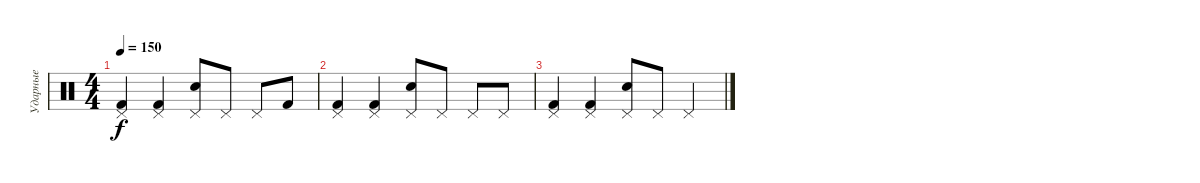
\track ("Ударные" "Ударные") {instrument percussion}
\staff {score}
\articulation defaults
\ts (4 4)
\tempo 150
\clef neutral
\ks c
("Pedal Hi-Hat (hit)" "Kick (hit) 2").4{dy f volume 2} ("Pedal Hi-Hat (hit)" "Kick (hit) 2").4 ("Pedal Hi-Hat (hit)" "Snare (hit) 2").8 "Pedal Hi-Hat (hit)".8 "Pedal Hi-Hat (hit)".8 "Kick (hit) 2".8 |
("Pedal Hi-Hat (hit)" "Kick (hit) 2").4{volume 0} ("Pedal Hi-Hat (hit)" "Kick (hit) 2").4 ("Pedal Hi-Hat (hit)" "Snare (hit) 2").8 "Pedal Hi-Hat (hit)".8 "Pedal Hi-Hat (hit)".8 "Pedal Hi-Hat (hit)".8 |
("Pedal Hi-Hat (hit)" "Kick (hit) 2").4 ("Pedal Hi-Hat (hit)" "Kick (hit) 2").4 ("Pedal Hi-Hat (hit)" "Snare (hit) 2").8 "Pedal Hi-Hat (hit)".8 "Pedal Hi-Hat (hit)".4
